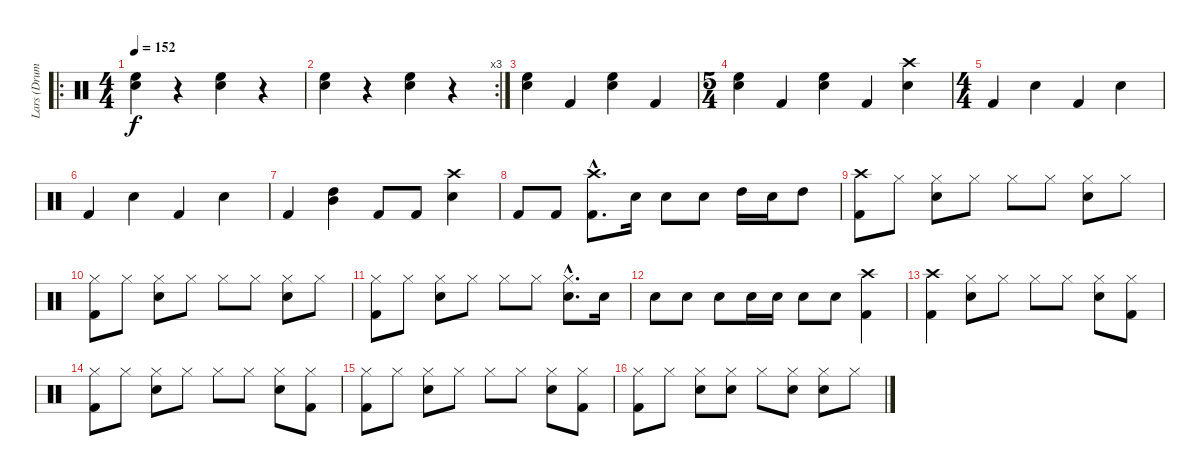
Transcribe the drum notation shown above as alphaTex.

\track ("Lars (Drums)" "Lars (Drum") {instrument percussion}
\staff {score}
\articulation defaults
\ro
\ts (4 4)
\tempo 152
\clef neutral
\ks c
("Snare (hit) 2" "High Floor Tom (hit)").4{dy f} r.4 ("Snare (hit) 2" "High Floor Tom (hit)").4 r.4 |
\rc 3
("Snare (hit) 2" "High Floor Tom (hit)").4 r.4 ("Snare (hit) 2" "High Floor Tom (hit)").4 r.4 |
("Snare (hit) 2" "High Floor Tom (hit)").4 "Kick (hit) 2".4 ("Snare (hit) 2" "High Floor Tom (hit)").4 "Kick (hit) 2".4 |
\ts (5 4)
("Snare (hit) 2" "High Floor Tom (hit)").4 "Kick (hit) 2".4 ("Snare (hit) 2" "High Floor Tom (hit)").4 "Kick (hit) 2".4 ("Crash high (hit)" "Snare (hit) 2").4 |
\ts (4 4)
"Kick (hit) 2".4 "Snare (hit) 2".4 "Kick (hit) 2".4 "Snare (hit) 2".4 |
"Kick (hit) 2".4 "Snare (hit) 2".4 "Kick (hit) 2".4 "Snare (hit) 2".4 |
"Kick (hit) 2".4 ("High Tom (hit)" "Mid Tom (hit)").4 "Kick (hit) 2".8 "Kick (hit) 2".8 ("Crash high (hit)" "Snare (hit) 2").4 |
"Kick (hit) 2".8 "Kick (hit) 2".8 ("Crash high (hit)"{hac} "Kick (hit) 2"{hac}).8{d} "Snare (hit) 2".16 "Snare (hit) 2".8 "Snare (hit) 2".8 "High Tom (hit)".16 "Snare (hit) 2".16 "High Tom (hit)".8 |
("Crash high (hit)" "Kick (hit) 2").8 "Hi-Hat (closed)".8 ("Hi-Hat (closed)" "Snare (hit) 2").8 "Hi-Hat (closed)".8 "Hi-Hat (closed)".8 "Hi-Hat (closed)".8 ("Hi-Hat (closed)" "Snare (hit) 2").8 "Hi-Hat (closed)".8 |
("Hi-Hat (closed)" "Kick (hit) 2").8 "Hi-Hat (closed)".8 ("Hi-Hat (closed)" "Snare (hit) 2").8 "Hi-Hat (closed)".8 "Hi-Hat (closed)".8 "Hi-Hat (closed)".8 ("Hi-Hat (closed)" "Snare (hit) 2").8 "Hi-Hat (closed)".8 |
("Hi-Hat (closed)" "Kick (hit) 2").8 "Hi-Hat (closed)".8 ("Hi-Hat (closed)" "Snare (hit) 2").8 "Hi-Hat (closed)".8 "Hi-Hat (closed)".8 "Hi-Hat (closed)".8 ("Hi-Hat (closed)"{hac} "Snare (hit) 2"{hac}).8{d} "Snare (hit) 2".16 |
"Snare (hit) 2".8 "Snare (hit) 2".8 "Snare (hit) 2".8 "Snare (hit) 2".16 "Snare (hit) 2".16 "Snare (hit) 2".8 "Snare (hit) 2".8 ("Crash high (hit)" "Kick (hit) 2").4 |
("Crash high (hit)" "Kick (hit) 2").4 ("Hi-Hat (closed)" "Snare (hit) 2").8 "Hi-Hat (closed)".8 "Hi-Hat (closed)".8 "Hi-Hat (closed)".8 ("Hi-Hat (closed)" "Snare (hit) 2").8 ("Hi-Hat (closed)" "Kick (hit) 2").8 |
("Hi-Hat (closed)" "Kick (hit) 2").8 "Hi-Hat (closed)".8 ("Hi-Hat (closed)" "Snare (hit) 2").8 "Hi-Hat (closed)".8 "Hi-Hat (closed)".8 "Hi-Hat (closed)".8 ("Hi-Hat (closed)" "Snare (hit) 2").8 ("Hi-Hat (closed)" "Kick (hit) 2").8 |
("Hi-Hat (closed)" "Kick (hit) 2").8 "Hi-Hat (closed)".8 ("Hi-Hat (closed)" "Snare (hit) 2").8 "Hi-Hat (closed)".8 "Hi-Hat (closed)".8 "Hi-Hat (closed)".8 ("Hi-Hat (closed)" "Snare (hit) 2").8 ("Hi-Hat (closed)" "Kick (hit) 2").8 |
("Hi-Hat (closed)" "Kick (hit) 2").8 "Hi-Hat (closed)".8 ("Hi-Hat (closed)" "Snare (hit) 2").8 ("Hi-Hat (closed)" "Snare (hit) 2").8 "Hi-Hat (closed)".8 ("Hi-Hat (closed)" "Snare (hit) 2").8 ("Hi-Hat (closed)" "Snare (hit) 2").8 "Hi-Hat (closed)".8
